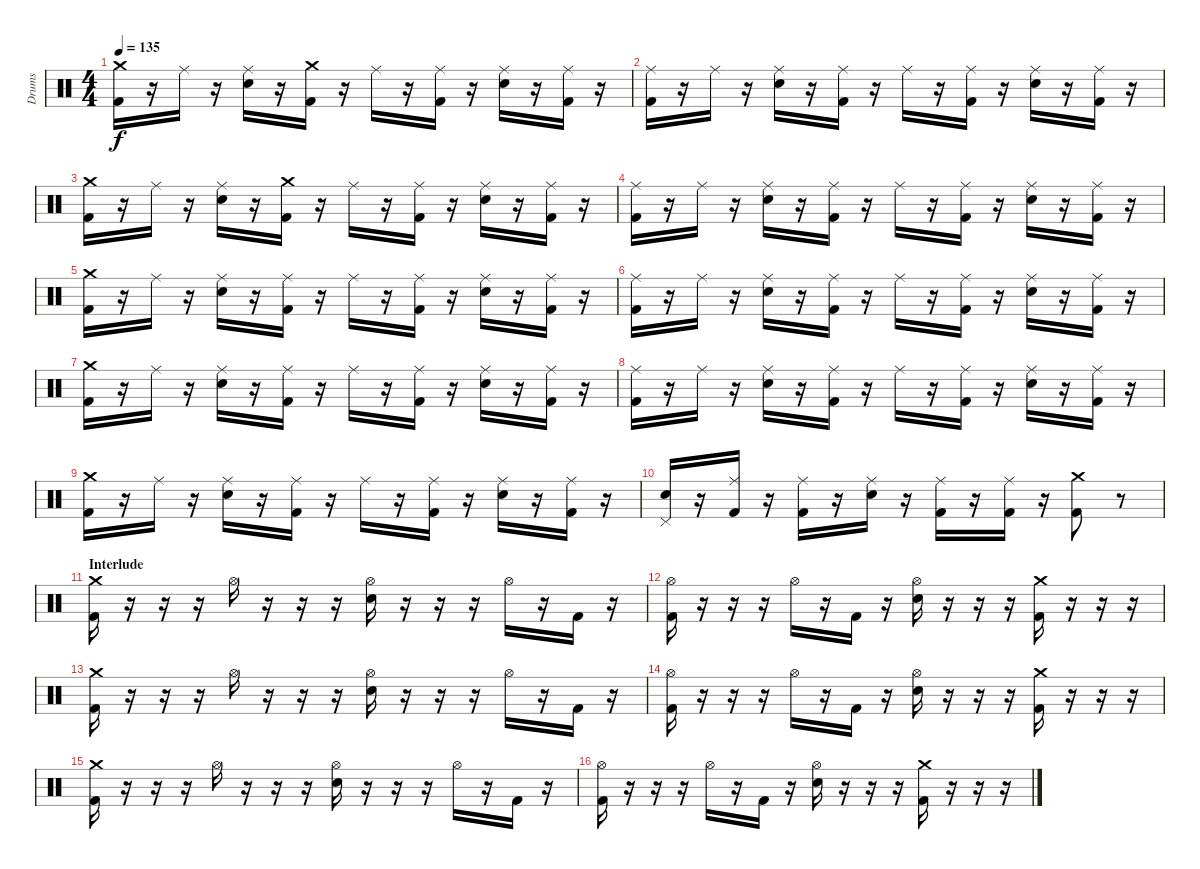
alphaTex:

\track ("Drums" "Drums") {instrument percussion}
\staff {score}
\articulation defaults
\ts (4 4)
\tempo 135
\clef neutral
\ks c
("Crash medium (hit)" "Kick (hit) 2").16{dy f} r.16 "Ride (middle)".16 r.16 ("Ride (middle)" "Electric Snare (hit)").16 r.16 ("Crash medium (hit)" "Kick (hit) 2").16 r.16 "Ride (middle)".16 r.16 ("Ride (middle)" "Kick (hit) 2").16 r.16 ("Ride (middle)" "Electric Snare (hit)").16 r.16 ("Ride (middle)" "Kick (hit) 2").16 r.16 |
("Ride (middle)" "Kick (hit) 2").16 r.16 "Ride (middle)".16 r.16 ("Ride (middle)" "Electric Snare (hit)").16 r.16 ("Ride (middle)" "Kick (hit) 2").16 r.16 "Ride (middle)".16 r.16 ("Ride (middle)" "Kick (hit) 2").16 r.16 ("Ride (middle)" "Electric Snare (hit)").16 r.16 ("Ride (middle)" "Kick (hit) 2").16 r.16 |
("Crash medium (hit)" "Kick (hit) 2").16 r.16 "Ride (middle)".16 r.16 ("Ride (middle)" "Electric Snare (hit)").16 r.16 ("Crash medium (hit)" "Kick (hit) 2").16 r.16 "Ride (middle)".16 r.16 ("Ride (middle)" "Kick (hit) 2").16 r.16 ("Ride (middle)" "Electric Snare (hit)").16 r.16 ("Ride (middle)" "Kick (hit) 2").16 r.16 |
("Ride (middle)" "Kick (hit) 2").16 r.16 "Ride (middle)".16 r.16 ("Ride (middle)" "Electric Snare (hit)").16 r.16 ("Ride (middle)" "Kick (hit) 2").16 r.16 "Ride (middle)".16 r.16 ("Ride (middle)" "Kick (hit) 2").16 r.16 ("Ride (middle)" "Electric Snare (hit)").16 r.16 ("Ride (middle)" "Kick (hit) 2").16 r.16 |
("Crash medium (hit)" "Kick (hit) 2").16 r.16 "Ride (middle)".16 r.16 ("Ride (middle)" "Electric Snare (hit)").16 r.16 ("Ride (middle)" "Kick (hit) 2").16 r.16 "Ride (middle)".16 r.16 ("Ride (middle)" "Kick (hit) 2").16 r.16 ("Ride (middle)" "Electric Snare (hit)").16 r.16 ("Ride (middle)" "Kick (hit) 2").16 r.16 |
("Ride (middle)" "Kick (hit) 2").16 r.16 "Ride (middle)".16 r.16 ("Ride (middle)" "Electric Snare (hit)").16 r.16 ("Ride (middle)" "Kick (hit) 2").16 r.16 "Ride (middle)".16 r.16 ("Ride (middle)" "Kick (hit) 2").16 r.16 ("Ride (middle)" "Electric Snare (hit)").16 r.16 ("Ride (middle)" "Kick (hit) 2").16 r.16 |
("Crash medium (hit)" "Kick (hit) 2").16 r.16 "Ride (middle)".16 r.16 ("Ride (middle)" "Electric Snare (hit)").16 r.16 ("Ride (middle)" "Kick (hit) 2").16 r.16 "Ride (middle)".16 r.16 ("Ride (middle)" "Kick (hit) 2").16 r.16 ("Ride (middle)" "Electric Snare (hit)").16 r.16 ("Ride (middle)" "Kick (hit) 2").16 r.16 |
("Ride (middle)" "Kick (hit) 2").16 r.16 "Ride (middle)".16 r.16 ("Ride (middle)" "Electric Snare (hit)").16 r.16 ("Ride (middle)" "Kick (hit) 2").16 r.16 "Ride (middle)".16 r.16 ("Ride (middle)" "Kick (hit) 2").16 r.16 ("Ride (middle)" "Electric Snare (hit)").16 r.16 ("Ride (middle)" "Kick (hit) 2").16 r.16 |
("Crash medium (hit)" "Kick (hit) 2").16 r.16 "Ride (middle)".16 r.16 ("Ride (middle)" "Electric Snare (hit)").16 r.16 ("Ride (middle)" "Kick (hit) 2").16 r.16 "Ride (middle)".16 r.16 ("Ride (middle)" "Kick (hit) 2").16 r.16 ("Ride (middle)" "Electric Snare (hit)").16 r.16 ("Ride (middle)" "Kick (hit) 2").16 r.16 |
("Pedal Hi-Hat (hit)" "Electric Snare (hit)").16 r.16 ("Ride (middle)" "Kick (hit) 2").16 r.16 ("Ride (middle)" "Kick (hit) 2").16 r.16 ("Ride (middle)" "Electric Snare (hit)").16 r.16 ("Ride (middle)" "Kick (hit) 2").16 r.16 ("Ride (middle)" "Kick (hit) 2").16 r.16 ("Kick (hit) 2" "Crash medium (hit)").8 r.8 |
\section ("" "Interlude")
("Crash medium (hit)" "Kick (hit) 2").16 r.16 r.16 r.16 "Hi-Hat (open)".16 r.16 r.16 r.16 ("Hi-Hat (open)" "Electric Snare (hit)").16 r.16 r.16 r.16 "Hi-Hat (open)".16 r.16 "Kick (hit) 2".16 r.16 |
("Hi-Hat (open)" "Kick (hit) 2").16 r.16 r.16 r.16 "Hi-Hat (open)".16 r.16 "Kick (hit) 2".16 r.16 ("Hi-Hat (open)" "Electric Snare (hit)").16 r.16 r.16 r.16 ("Crash medium (hit)" "Kick (hit) 2").16 r.16 r.16 r.16 |
("Crash medium (hit)" "Kick (hit) 2").16 r.16 r.16 r.16 "Hi-Hat (open)".16 r.16 r.16 r.16 ("Hi-Hat (open)" "Electric Snare (hit)").16 r.16 r.16 r.16 "Hi-Hat (open)".16 r.16 "Kick (hit) 2".16 r.16 |
("Hi-Hat (open)" "Kick (hit) 2").16 r.16 r.16 r.16 "Hi-Hat (open)".16 r.16 "Kick (hit) 2".16 r.16 ("Hi-Hat (open)" "Electric Snare (hit)").16 r.16 r.16 r.16 ("Crash medium (hit)" "Kick (hit) 2").16 r.16 r.16 r.16 |
("Crash medium (hit)" "Kick (hit) 2").16 r.16 r.16 r.16 "Hi-Hat (open)".16 r.16 r.16 r.16 ("Hi-Hat (open)" "Electric Snare (hit)").16 r.16 r.16 r.16 "Hi-Hat (open)".16 r.16 "Kick (hit) 2".16 r.16 |
("Hi-Hat (open)" "Kick (hit) 2").16 r.16 r.16 r.16 "Hi-Hat (open)".16 r.16 "Kick (hit) 2".16 r.16 ("Hi-Hat (open)" "Electric Snare (hit)").16 r.16 r.16 r.16 ("Crash medium (hit)" "Kick (hit) 2").16 r.16 r.16 r.16
